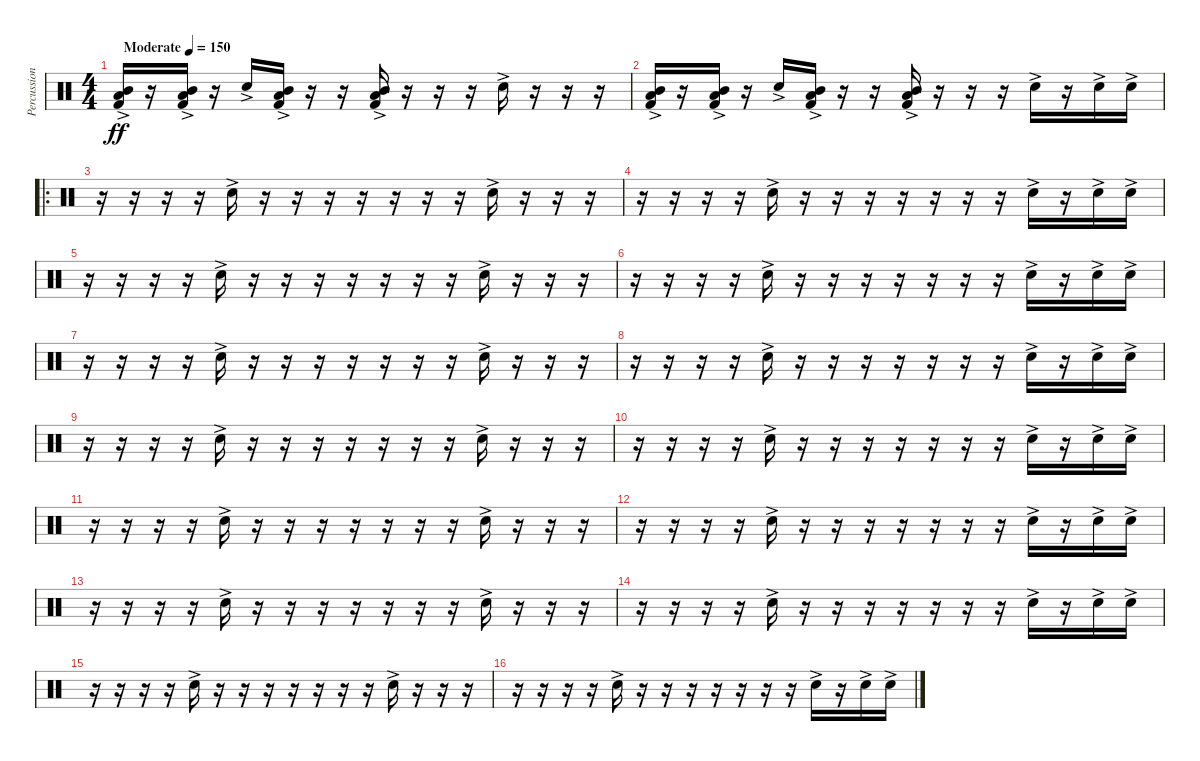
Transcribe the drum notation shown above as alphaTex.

\track ("Percussion" "Percussion") {instrument percussion bank 252}
\staff {score}
\articulation defaults
\ts (4 4)
\tempo (150 "Moderate")
\clef neutral
\ks c
("Mid Tom (hit)"{ac} "Low Tom (hit)"{ac} "Kick (hit) 2"{ac}).16{dy ff} r.16 ("Mid Tom (hit)"{ac} "Low Tom (hit)"{ac} "Kick (hit) 2"{ac}).16 r.16 "Snare (hit) 2"{ac}.16 ("Mid Tom (hit)"{ac} "Low Tom (hit)"{ac} "Kick (hit) 2"{ac}).16 r.16 r.16 ("Low Tom (hit)"{ac} "Mid Tom (hit)"{ac} "Kick (hit) 2"{ac}).16 r.16 r.16 r.16 "Snare (hit) 2"{ac}.16 r.16 r.16 r.16 |
("Mid Tom (hit)"{ac} "Low Tom (hit)"{ac} "Kick (hit) 2"{ac}).16 r.16 ("Mid Tom (hit)"{ac} "Low Tom (hit)"{ac} "Kick (hit) 2"{ac}).16 r.16 "Snare (hit) 2"{ac}.16 ("Mid Tom (hit)"{ac} "Low Tom (hit)"{ac} "Kick (hit) 2"{ac}).16 r.16 r.16 ("Low Tom (hit)"{ac} "Mid Tom (hit)"{ac} "Kick (hit) 2"{ac}).16 r.16 r.16 r.16 "Snare (hit) 2"{ac}.16 r.16 "Snare (hit) 2"{ac}.16 "Snare (hit) 2"{ac}.16 |
\ro
r.16 r.16 r.16 r.16 "Snare (hit) 2"{ac}.16 r.16 r.16 r.16 r.16 r.16 r.16 r.16 "Snare (hit) 2"{ac}.16 r.16 r.16 r.16 |
r.16 r.16 r.16 r.16 "Snare (hit) 2"{ac}.16 r.16 r.16 r.16 r.16 r.16 r.16 r.16 "Snare (hit) 2"{ac}.16 r.16 "Snare (hit) 2"{ac}.16 "Snare (hit) 2"{ac}.16 |
r.16 r.16 r.16 r.16 "Snare (hit) 2"{ac}.16 r.16 r.16 r.16 r.16 r.16 r.16 r.16 "Snare (hit) 2"{ac}.16 r.16 r.16 r.16 |
r.16 r.16 r.16 r.16 "Snare (hit) 2"{ac}.16 r.16 r.16 r.16 r.16 r.16 r.16 r.16 "Snare (hit) 2"{ac}.16 r.16 "Snare (hit) 2"{ac}.16 "Snare (hit) 2"{ac}.16 |
r.16 r.16 r.16 r.16 "Snare (hit) 2"{ac}.16 r.16 r.16 r.16 r.16 r.16 r.16 r.16 "Snare (hit) 2"{ac}.16 r.16 r.16 r.16 |
r.16 r.16 r.16 r.16 "Snare (hit) 2"{ac}.16 r.16 r.16 r.16 r.16 r.16 r.16 r.16 "Snare (hit) 2"{ac}.16 r.16 "Snare (hit) 2"{ac}.16 "Snare (hit) 2"{ac}.16 |
r.16 r.16 r.16 r.16 "Snare (hit) 2"{ac}.16 r.16 r.16 r.16 r.16 r.16 r.16 r.16 "Snare (hit) 2"{ac}.16 r.16 r.16 r.16 |
r.16 r.16 r.16 r.16 "Snare (hit) 2"{ac}.16 r.16 r.16 r.16 r.16 r.16 r.16 r.16 "Snare (hit) 2"{ac}.16 r.16 "Snare (hit) 2"{ac}.16 "Snare (hit) 2"{ac}.16 |
r.16 r.16 r.16 r.16 "Snare (hit) 2"{ac}.16 r.16 r.16 r.16 r.16 r.16 r.16 r.16 "Snare (hit) 2"{ac}.16 r.16 r.16 r.16 |
r.16 r.16 r.16 r.16 "Snare (hit) 2"{ac}.16 r.16 r.16 r.16 r.16 r.16 r.16 r.16 "Snare (hit) 2"{ac}.16 r.16 "Snare (hit) 2"{ac}.16 "Snare (hit) 2"{ac}.16 |
r.16 r.16 r.16 r.16 "Snare (hit) 2"{ac}.16 r.16 r.16 r.16 r.16 r.16 r.16 r.16 "Snare (hit) 2"{ac}.16 r.16 r.16 r.16 |
r.16 r.16 r.16 r.16 "Snare (hit) 2"{ac}.16 r.16 r.16 r.16 r.16 r.16 r.16 r.16 "Snare (hit) 2"{ac}.16 r.16 "Snare (hit) 2"{ac}.16 "Snare (hit) 2"{ac}.16 |
r.16 r.16 r.16 r.16 "Snare (hit) 2"{ac}.16 r.16 r.16 r.16 r.16 r.16 r.16 r.16 "Snare (hit) 2"{ac}.16 r.16 r.16 r.16 |
r.16 r.16 r.16 r.16 "Snare (hit) 2"{ac}.16 r.16 r.16 r.16 r.16 r.16 r.16 r.16 "Snare (hit) 2"{ac}.16 r.16 "Snare (hit) 2"{ac}.16 "Snare (hit) 2"{ac}.16
